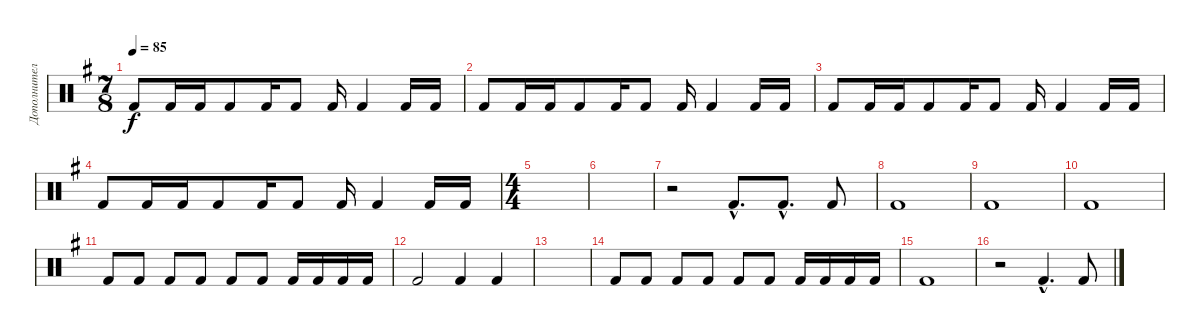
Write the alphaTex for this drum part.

\track ("Дополнительно" "Дополнител") {instrument percussion}
\staff {score}
\articulation defaults
\ts (7 8)
\tempo 85
\clef neutral
\ks eminor "Kick (hit) 2".8{dy f} "Kick (hit) 2".16 "Kick (hit) 2".16 "Kick (hit) 2".8 "Kick (hit) 2".16 "Kick (hit) 2".8 "Kick (hit) 2".16 "Kick (hit) 2".4 "Kick (hit) 2".16 "Kick (hit) 2".16
|
"Kick (hit) 2".8 "Kick (hit) 2".16 "Kick (hit) 2".16 "Kick (hit) 2".8 "Kick (hit) 2".16 "Kick (hit) 2".8 "Kick (hit) 2".16 "Kick (hit) 2".4 "Kick (hit) 2".16 "Kick (hit) 2".16 |
"Kick (hit) 2".8 "Kick (hit) 2".16 "Kick (hit) 2".16 "Kick (hit) 2".8 "Kick (hit) 2".16 "Kick (hit) 2".8 "Kick (hit) 2".16 "Kick (hit) 2".4 "Kick (hit) 2".16 "Kick (hit) 2".16 |
"Kick (hit) 2".8 "Kick (hit) 2".16 "Kick (hit) 2".16 "Kick (hit) 2".8 "Kick (hit) 2".16 "Kick (hit) 2".8 "Kick (hit) 2".16 "Kick (hit) 2".4 "Kick (hit) 2".16 "Kick (hit) 2".16 |
\ts (4 4)
|
|
r.2 "Kick (hit) 2"{hac}.8{d} "Kick (hit) 2"{hac}.8{d} "Kick (hit) 2".8 |
"Kick (hit) 2".1 |
"Kick (hit) 2".1 |
"Kick (hit) 2".1 |
"Kick (hit) 2".8 "Kick (hit) 2".8 "Kick (hit) 2".8 "Kick (hit) 2".8 "Kick (hit) 2".8 "Kick (hit) 2".8 "Kick (hit) 2".16 "Kick (hit) 2".16 "Kick (hit) 2".16 "Kick (hit) 2".16 |
"Kick (hit) 2".2 "Kick (hit) 2".4 "Kick (hit) 2".4 |
|
"Kick (hit) 2".8 "Kick (hit) 2".8 "Kick (hit) 2".8 "Kick (hit) 2".8 "Kick (hit) 2".8 "Kick (hit) 2".8 "Kick (hit) 2".16 "Kick (hit) 2".16 "Kick (hit) 2".16 "Kick (hit) 2".16 |
"Kick (hit) 2".1 |
r.2 "Kick (hit) 2"{hac}.4{d} "Kick (hit) 2".8
